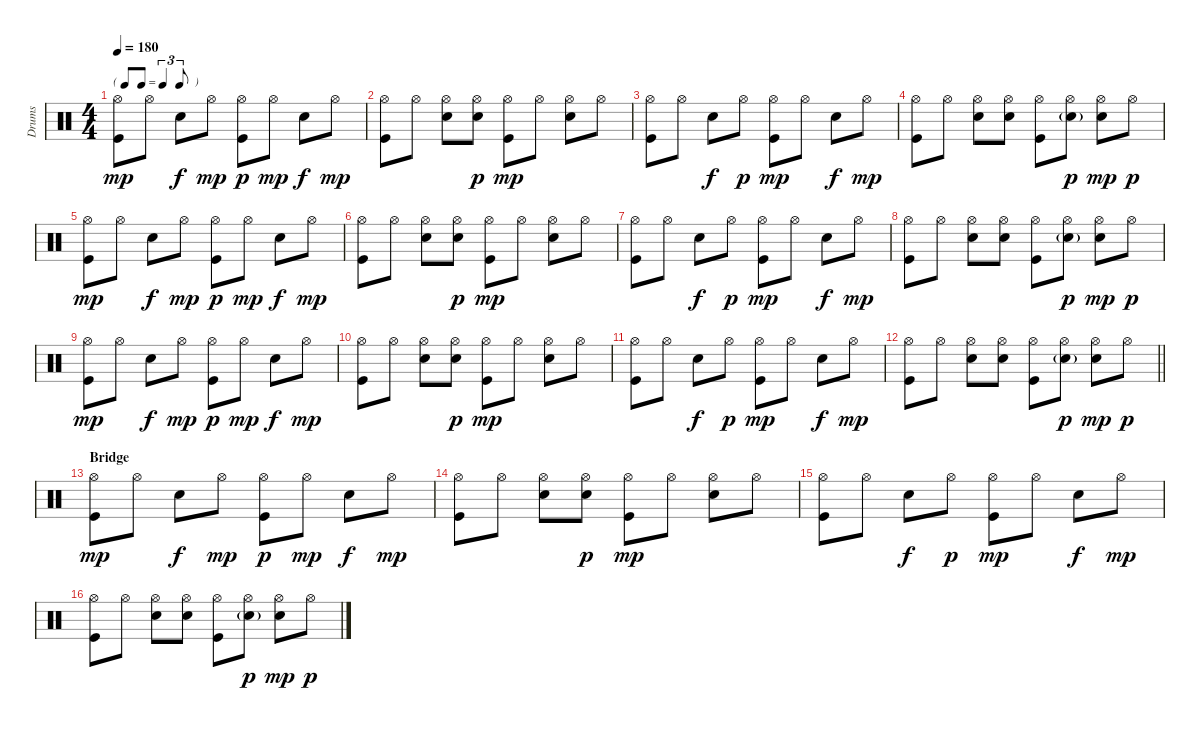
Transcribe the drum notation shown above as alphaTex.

\track ("Drums" "Drums") {instrument percussion}
\staff {score}
\articulation defaults
\ts (4 4)
\tf triplet8th
\tempo 180
\clef neutral
\ks c
("Hi-Hat (open)" "Kick (hit)").8{dy mp} "Hi-Hat (open)".8 "Electric Snare (hit)".8{dy f} "Hi-Hat (open)".8{dy mp} ("Hi-Hat (open)" "Kick (hit)").8{dy p} "Hi-Hat (open)".8{dy mp} "Electric Snare (hit)".8{dy f} "Hi-Hat (open)".8{dy mp} |
("Hi-Hat (open)" "Kick (hit)").8 "Hi-Hat (open)".8 ("Hi-Hat (open)" "Electric Snare (hit)").8 ("Electric Snare (hit)" "Hi-Hat (open)").8{dy p} ("Hi-Hat (open)" "Kick (hit)").8{dy mp} "Hi-Hat (open)".8 ("Hi-Hat (open)" "Electric Snare (hit)").8 "Hi-Hat (open)".8 |
("Hi-Hat (open)" "Kick (hit)").8 "Hi-Hat (open)".8 "Electric Snare (hit)".8{dy f} "Hi-Hat (open)".8{dy p} ("Hi-Hat (open)" "Kick (hit)").8{dy mp} "Hi-Hat (open)".8 "Electric Snare (hit)".8{dy f} "Hi-Hat (open)".8{dy mp} |
("Hi-Hat (open)" "Kick (hit)").8 "Hi-Hat (open)".8 ("Hi-Hat (open)" "Electric Snare (hit)").8 ("Electric Snare (hit)" "Hi-Hat (open)").8 ("Hi-Hat (open)" "Kick (hit)").8 ("Electric Snare (hit)"{g} "Hi-Hat (open)").8{dy p} ("Hi-Hat (open)" "Electric Snare (hit)").8{dy mp} "Hi-Hat (open)".8{dy p} |
("Hi-Hat (open)" "Kick (hit)").8{dy mp} "Hi-Hat (open)".8 "Electric Snare (hit)".8{dy f} "Hi-Hat (open)".8{dy mp} ("Hi-Hat (open)" "Kick (hit)").8{dy p} "Hi-Hat (open)".8{dy mp} "Electric Snare (hit)".8{dy f} "Hi-Hat (open)".8{dy mp} |
("Hi-Hat (open)" "Kick (hit)").8 "Hi-Hat (open)".8 ("Hi-Hat (open)" "Electric Snare (hit)").8 ("Electric Snare (hit)" "Hi-Hat (open)").8{dy p} ("Hi-Hat (open)" "Kick (hit)").8{dy mp} "Hi-Hat (open)".8 ("Hi-Hat (open)" "Electric Snare (hit)").8 "Hi-Hat (open)".8 |
("Hi-Hat (open)" "Kick (hit)").8 "Hi-Hat (open)".8 "Electric Snare (hit)".8{dy f} "Hi-Hat (open)".8{dy p} ("Hi-Hat (open)" "Kick (hit)").8{dy mp} "Hi-Hat (open)".8 "Electric Snare (hit)".8{dy f} "Hi-Hat (open)".8{dy mp} |
("Hi-Hat (open)" "Kick (hit)").8 "Hi-Hat (open)".8 ("Hi-Hat (open)" "Electric Snare (hit)").8 ("Electric Snare (hit)" "Hi-Hat (open)").8 ("Hi-Hat (open)" "Kick (hit)").8 ("Electric Snare (hit)"{g} "Hi-Hat (open)").8{dy p} ("Hi-Hat (open)" "Electric Snare (hit)").8{dy mp} "Hi-Hat (open)".8{dy p} |
("Hi-Hat (open)" "Kick (hit)").8{dy mp} "Hi-Hat (open)".8 "Electric Snare (hit)".8{dy f} "Hi-Hat (open)".8{dy mp} ("Hi-Hat (open)" "Kick (hit)").8{dy p} "Hi-Hat (open)".8{dy mp} "Electric Snare (hit)".8{dy f} "Hi-Hat (open)".8{dy mp} |
("Hi-Hat (open)" "Kick (hit)").8 "Hi-Hat (open)".8 ("Hi-Hat (open)" "Electric Snare (hit)").8 ("Electric Snare (hit)" "Hi-Hat (open)").8{dy p} ("Hi-Hat (open)" "Kick (hit)").8{dy mp} "Hi-Hat (open)".8 ("Hi-Hat (open)" "Electric Snare (hit)").8 "Hi-Hat (open)".8 |
("Hi-Hat (open)" "Kick (hit)").8 "Hi-Hat (open)".8 "Electric Snare (hit)".8{dy f} "Hi-Hat (open)".8{dy p} ("Hi-Hat (open)" "Kick (hit)").8{dy mp} "Hi-Hat (open)".8 "Electric Snare (hit)".8{dy f} "Hi-Hat (open)".8{dy mp} |
\barLineRight lightlight
("Hi-Hat (open)" "Kick (hit)").8 "Hi-Hat (open)".8 ("Hi-Hat (open)" "Electric Snare (hit)").8 ("Electric Snare (hit)" "Hi-Hat (open)").8 ("Hi-Hat (open)" "Kick (hit)").8 ("Electric Snare (hit)"{g} "Hi-Hat (open)").8{dy p} ("Hi-Hat (open)" "Electric Snare (hit)").8{dy mp} "Hi-Hat (open)".8{dy p} |
\section ("" "Bridge")
("Hi-Hat (open)" "Kick (hit)").8{dy mp} "Hi-Hat (open)".8 "Electric Snare (hit)".8{dy f} "Hi-Hat (open)".8{dy mp} ("Hi-Hat (open)" "Kick (hit)").8{dy p} "Hi-Hat (open)".8{dy mp} "Electric Snare (hit)".8{dy f} "Hi-Hat (open)".8{dy mp} |
("Hi-Hat (open)" "Kick (hit)").8 "Hi-Hat (open)".8 ("Hi-Hat (open)" "Electric Snare (hit)").8 ("Electric Snare (hit)" "Hi-Hat (open)").8{dy p} ("Hi-Hat (open)" "Kick (hit)").8{dy mp} "Hi-Hat (open)".8 ("Hi-Hat (open)" "Electric Snare (hit)").8 "Hi-Hat (open)".8 |
("Hi-Hat (open)" "Kick (hit)").8 "Hi-Hat (open)".8 "Electric Snare (hit)".8{dy f} "Hi-Hat (open)".8{dy p} ("Hi-Hat (open)" "Kick (hit)").8{dy mp} "Hi-Hat (open)".8 "Electric Snare (hit)".8{dy f} "Hi-Hat (open)".8{dy mp} |
("Hi-Hat (open)" "Kick (hit)").8 "Hi-Hat (open)".8 ("Hi-Hat (open)" "Electric Snare (hit)").8 ("Electric Snare (hit)" "Hi-Hat (open)").8 ("Hi-Hat (open)" "Kick (hit)").8 ("Electric Snare (hit)"{g} "Hi-Hat (open)").8{dy p} ("Hi-Hat (open)" "Electric Snare (hit)").8{dy mp} "Hi-Hat (open)".8{dy p}
